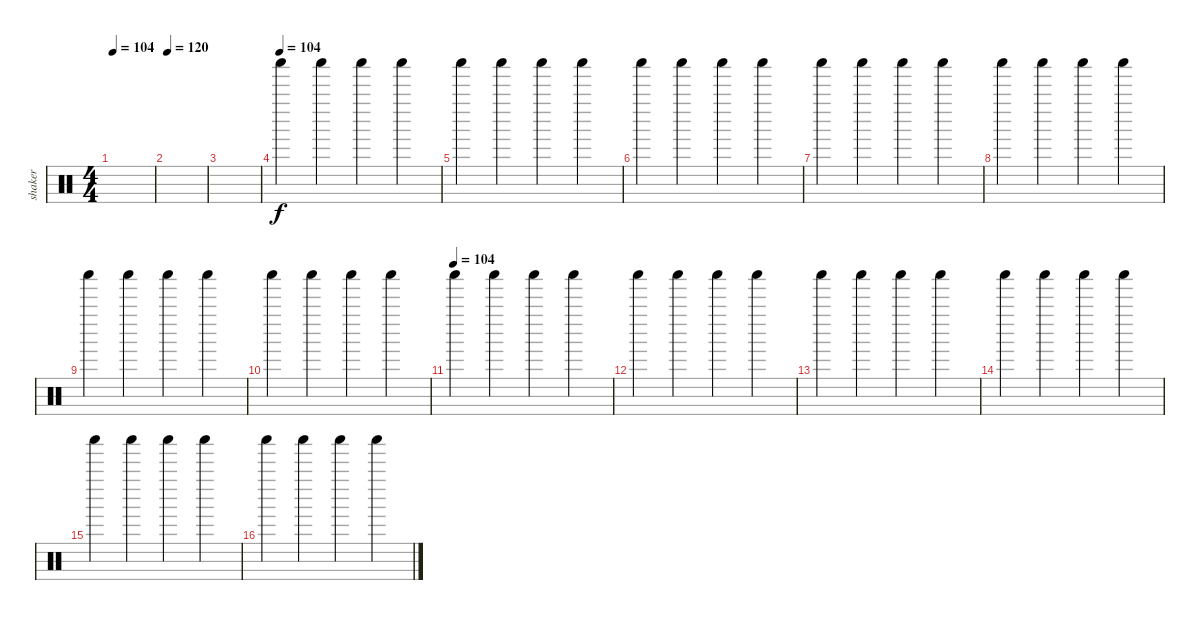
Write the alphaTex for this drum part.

\track ("shaker" "shaker") {instrument percussion}
\staff {score}
\articulation defaults
\ts (4 4)
\tempo 104
\clef neutral
\ks c
|
\tempo 120
|
|
\tempo (104)
"Shaker (hit)".4 "Shaker (hit)".4 "Shaker (hit)".4 "Shaker (hit)".4 |
"Shaker (hit)".4 "Shaker (hit)".4 "Shaker (hit)".4 "Shaker (hit)".4 |
"Shaker (hit)".4 "Shaker (hit)".4 "Shaker (hit)".4 "Shaker (hit)".4 |
"Shaker (hit)".4 "Shaker (hit)".4 "Shaker (hit)".4 "Shaker (hit)".4 |
"Shaker (hit)".4 "Shaker (hit)".4 "Shaker (hit)".4 "Shaker (hit)".4 |
"Shaker (hit)".4 "Shaker (hit)".4 "Shaker (hit)".4 "Shaker (hit)".4 |
"Shaker (hit)".4 "Shaker (hit)".4 "Shaker (hit)".4 "Shaker (hit)".4 |
\tempo (104)
"Shaker (hit)".4 "Shaker (hit)".4 "Shaker (hit)".4 "Shaker (hit)".4 |
"Shaker (hit)".4 "Shaker (hit)".4 "Shaker (hit)".4 "Shaker (hit)".4 |
"Shaker (hit)".4 "Shaker (hit)".4 "Shaker (hit)".4 "Shaker (hit)".4 |
"Shaker (hit)".4 "Shaker (hit)".4 "Shaker (hit)".4 "Shaker (hit)".4 |
"Shaker (hit)".4 "Shaker (hit)".4 "Shaker (hit)".4 "Shaker (hit)".4 |
"Shaker (hit)".4 "Shaker (hit)".4 "Shaker (hit)".4 "Shaker (hit)".4
